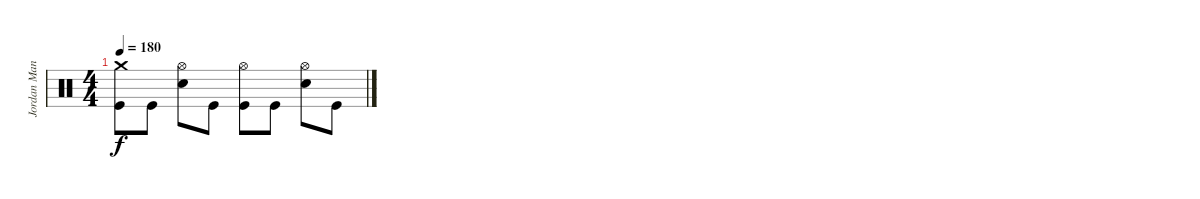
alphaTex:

\track ("Jordan Mancino" "Jordan Man") {instrument percussion}
\staff {score}
\articulation defaults
\ts (4 4)
\tempo 180
\clef neutral
\ks c
("Crash medium (hit)" "Kick (hit)").8{dy f} "Kick (hit)".8 ("Hi-Hat (open)" "Snare (hit) 2").8 "Kick (hit)".8 ("Hi-Hat (open)" "Kick (hit)").8 "Kick (hit)".8 ("Hi-Hat (open)" "Snare (hit) 2").8 "Kick (hit)".8
